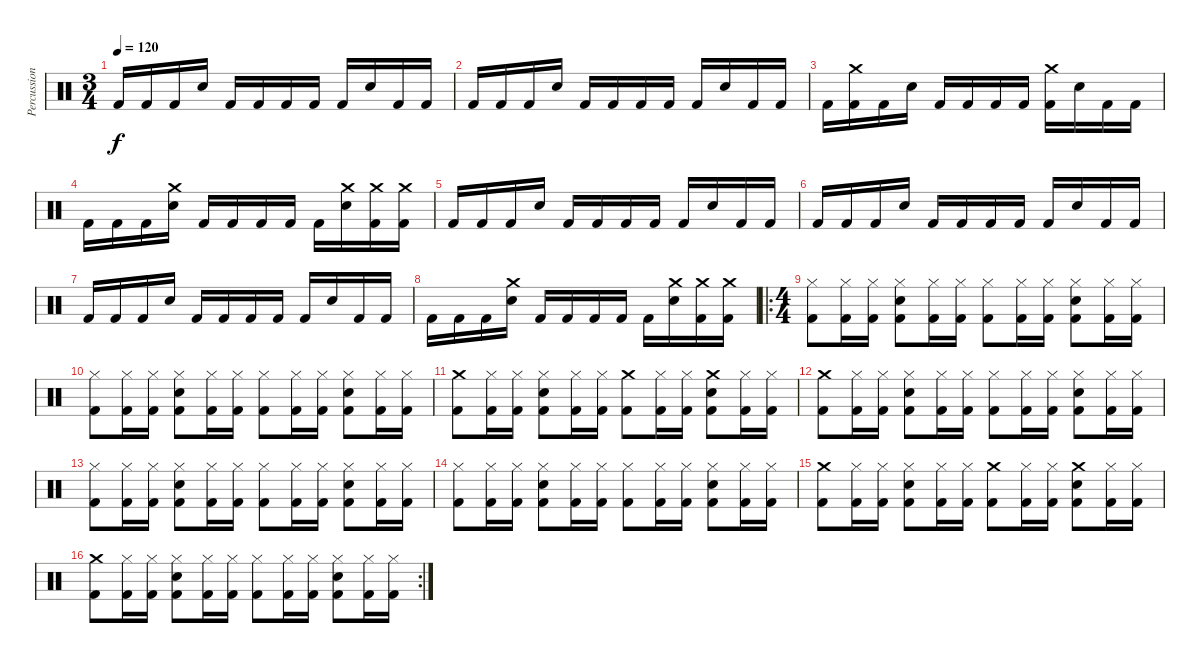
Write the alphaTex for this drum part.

\track ("Percussion" "Percussion") {instrument percussion}
\staff {score}
\articulation defaults
\ts (3 4)
\tempo 120
\clef neutral
\ks c "Kick (hit) 2".16{dy f} "Kick (hit) 2".16 "Kick (hit) 2".16 "Snare (hit) 2".16 "Kick (hit) 2".16 "Kick (hit) 2".16 "Kick (hit) 2".16 "Kick (hit) 2".16 "Kick (hit) 2".16 "Snare (hit) 2".16 "Kick (hit) 2".16 "Kick (hit) 2".16
|
"Kick (hit) 2".16 "Kick (hit) 2".16 "Kick (hit) 2".16 "Snare (hit) 2".16 "Kick (hit) 2".16 "Kick (hit) 2".16 "Kick (hit) 2".16 "Kick (hit) 2".16 "Kick (hit) 2".16 "Snare (hit) 2".16 "Kick (hit) 2".16 "Kick (hit) 2".16 |
"Kick (hit) 2".16 ("Kick (hit) 2" "Crash medium (hit)").16 "Kick (hit) 2".16 "Snare (hit) 2".16 "Kick (hit) 2".16 "Kick (hit) 2".16 "Kick (hit) 2".16 "Kick (hit) 2".16 ("Kick (hit) 2" "Crash medium (hit)").16 "Snare (hit) 2".16 "Kick (hit) 2".16 "Kick (hit) 2".16 |
"Kick (hit) 2".16 "Kick (hit) 2".16 "Kick (hit) 2".16 ("Snare (hit) 2" "Crash medium (hit)").16 "Kick (hit) 2".16 "Kick (hit) 2".16 "Kick (hit) 2".16 "Kick (hit) 2".16 "Kick (hit) 2".16 ("Snare (hit) 2" "Crash medium (hit)").16 ("Kick (hit) 2" "Crash medium (hit)").16 ("Kick (hit) 2" "Crash medium (hit)").16 |
"Kick (hit) 2".16 "Kick (hit) 2".16 "Kick (hit) 2".16 "Snare (hit) 2".16 "Kick (hit) 2".16 "Kick (hit) 2".16 "Kick (hit) 2".16 "Kick (hit) 2".16 "Kick (hit) 2".16 "Snare (hit) 2".16 "Kick (hit) 2".16 "Kick (hit) 2".16 |
"Kick (hit) 2".16 "Kick (hit) 2".16 "Kick (hit) 2".16 "Snare (hit) 2".16 "Kick (hit) 2".16 "Kick (hit) 2".16 "Kick (hit) 2".16 "Kick (hit) 2".16 "Kick (hit) 2".16 "Snare (hit) 2".16 "Kick (hit) 2".16 "Kick (hit) 2".16 |
"Kick (hit) 2".16 "Kick (hit) 2".16 "Kick (hit) 2".16 "Snare (hit) 2".16 "Kick (hit) 2".16 "Kick (hit) 2".16 "Kick (hit) 2".16 "Kick (hit) 2".16 "Kick (hit) 2".16 "Snare (hit) 2".16 "Kick (hit) 2".16 "Kick (hit) 2".16 |
"Kick (hit) 2".16 "Kick (hit) 2".16 "Kick (hit) 2".16 ("Snare (hit) 2" "Crash medium (hit)").16 "Kick (hit) 2".16 "Kick (hit) 2".16 "Kick (hit) 2".16 "Kick (hit) 2".16 "Kick (hit) 2".16 ("Snare (hit) 2" "Crash medium (hit)").16 ("Kick (hit) 2" "Crash medium (hit)").16 ("Kick (hit) 2" "Crash medium (hit)").16 |
\ro
\ts (4 4)
("Kick (hit) 2" "Hi-Hat (closed)").8 ("Kick (hit) 2" "Hi-Hat (closed)").16 ("Kick (hit) 2" "Hi-Hat (closed)").16 ("Kick (hit) 2" "Snare (hit) 2" "Hi-Hat (closed)").8 ("Kick (hit) 2" "Hi-Hat (closed)").16 ("Kick (hit) 2" "Hi-Hat (closed)").16 ("Kick (hit) 2" "Hi-Hat (closed)").8 ("Kick (hit) 2" "Hi-Hat (closed)").16 ("Kick (hit) 2" "Hi-Hat (closed)").16 ("Kick (hit) 2" "Snare (hit) 2" "Hi-Hat (closed)").8 ("Kick (hit) 2" "Hi-Hat (closed)").16 ("Kick (hit) 2" "Hi-Hat (closed)").16 |
("Kick (hit) 2" "Hi-Hat (closed)").8 ("Kick (hit) 2" "Hi-Hat (closed)").16 ("Kick (hit) 2" "Hi-Hat (closed)").16 ("Kick (hit) 2" "Snare (hit) 2" "Hi-Hat (closed)").8 ("Kick (hit) 2" "Hi-Hat (closed)").16 ("Kick (hit) 2" "Hi-Hat (closed)").16 ("Kick (hit) 2" "Hi-Hat (closed)").8 ("Kick (hit) 2" "Hi-Hat (closed)").16 ("Kick (hit) 2" "Hi-Hat (closed)").16 ("Kick (hit) 2" "Snare (hit) 2" "Hi-Hat (closed)").8 ("Kick (hit) 2" "Hi-Hat (closed)").16 ("Kick (hit) 2" "Hi-Hat (closed)").16 |
("Kick (hit) 2" "Crash medium (hit)").8 ("Kick (hit) 2" "Hi-Hat (closed)").16 ("Kick (hit) 2" "Hi-Hat (closed)").16 ("Kick (hit) 2" "Snare (hit) 2" "Hi-Hat (closed)").8 ("Kick (hit) 2" "Hi-Hat (closed)").16 ("Kick (hit) 2" "Hi-Hat (closed)").16 ("Kick (hit) 2" "Crash medium (hit)").8 ("Kick (hit) 2" "Hi-Hat (closed)").16 ("Kick (hit) 2" "Hi-Hat (closed)").16 ("Kick (hit) 2" "Snare (hit) 2" "Crash medium (hit)").8 ("Kick (hit) 2" "Hi-Hat (closed)").16 ("Kick (hit) 2" "Hi-Hat (closed)").16 |
("Kick (hit) 2" "Crash medium (hit)").8 ("Kick (hit) 2" "Hi-Hat (closed)").16 ("Kick (hit) 2" "Hi-Hat (closed)").16 ("Kick (hit) 2" "Snare (hit) 2" "Hi-Hat (closed)").8 ("Kick (hit) 2" "Hi-Hat (closed)").16 ("Kick (hit) 2" "Hi-Hat (closed)").16 ("Kick (hit) 2" "Hi-Hat (closed)").8 ("Kick (hit) 2" "Hi-Hat (closed)").16 ("Kick (hit) 2" "Hi-Hat (closed)").16 ("Kick (hit) 2" "Snare (hit) 2" "Hi-Hat (closed)").8 ("Kick (hit) 2" "Hi-Hat (closed)").16 ("Kick (hit) 2" "Hi-Hat (closed)").16 |
("Kick (hit) 2" "Hi-Hat (closed)").8 ("Kick (hit) 2" "Hi-Hat (closed)").16 ("Kick (hit) 2" "Hi-Hat (closed)").16 ("Kick (hit) 2" "Snare (hit) 2" "Hi-Hat (closed)").8 ("Kick (hit) 2" "Hi-Hat (closed)").16 ("Kick (hit) 2" "Hi-Hat (closed)").16 ("Kick (hit) 2" "Hi-Hat (closed)").8 ("Kick (hit) 2" "Hi-Hat (closed)").16 ("Kick (hit) 2" "Hi-Hat (closed)").16 ("Kick (hit) 2" "Snare (hit) 2" "Hi-Hat (closed)").8 ("Kick (hit) 2" "Hi-Hat (closed)").16 ("Kick (hit) 2" "Hi-Hat (closed)").16 |
("Kick (hit) 2" "Hi-Hat (closed)").8 ("Kick (hit) 2" "Hi-Hat (closed)").16 ("Kick (hit) 2" "Hi-Hat (closed)").16 ("Kick (hit) 2" "Snare (hit) 2" "Hi-Hat (closed)").8 ("Kick (hit) 2" "Hi-Hat (closed)").16 ("Kick (hit) 2" "Hi-Hat (closed)").16 ("Kick (hit) 2" "Hi-Hat (closed)").8 ("Kick (hit) 2" "Hi-Hat (closed)").16 ("Kick (hit) 2" "Hi-Hat (closed)").16 ("Kick (hit) 2" "Snare (hit) 2" "Hi-Hat (closed)").8 ("Kick (hit) 2" "Hi-Hat (closed)").16 ("Kick (hit) 2" "Hi-Hat (closed)").16 |
("Kick (hit) 2" "Crash medium (hit)").8 ("Kick (hit) 2" "Hi-Hat (closed)").16 ("Kick (hit) 2" "Hi-Hat (closed)").16 ("Kick (hit) 2" "Snare (hit) 2" "Hi-Hat (closed)").8 ("Kick (hit) 2" "Hi-Hat (closed)").16 ("Kick (hit) 2" "Hi-Hat (closed)").16 ("Kick (hit) 2" "Crash medium (hit)").8 ("Kick (hit) 2" "Hi-Hat (closed)").16 ("Kick (hit) 2" "Hi-Hat (closed)").16 ("Kick (hit) 2" "Snare (hit) 2" "Crash medium (hit)").8 ("Kick (hit) 2" "Hi-Hat (closed)").16 ("Kick (hit) 2" "Hi-Hat (closed)").16 |
\rc 2
("Kick (hit) 2" "Crash medium (hit)").8 ("Kick (hit) 2" "Hi-Hat (closed)").16 ("Kick (hit) 2" "Hi-Hat (closed)").16 ("Kick (hit) 2" "Snare (hit) 2" "Hi-Hat (closed)").8 ("Kick (hit) 2" "Hi-Hat (closed)").16 ("Kick (hit) 2" "Hi-Hat (closed)").16 ("Kick (hit) 2" "Hi-Hat (closed)").8 ("Kick (hit) 2" "Hi-Hat (closed)").16 ("Kick (hit) 2" "Hi-Hat (closed)").16 ("Kick (hit) 2" "Snare (hit) 2" "Hi-Hat (closed)").8 ("Kick (hit) 2" "Hi-Hat (closed)").16 ("Kick (hit) 2" "Hi-Hat (closed)").16
